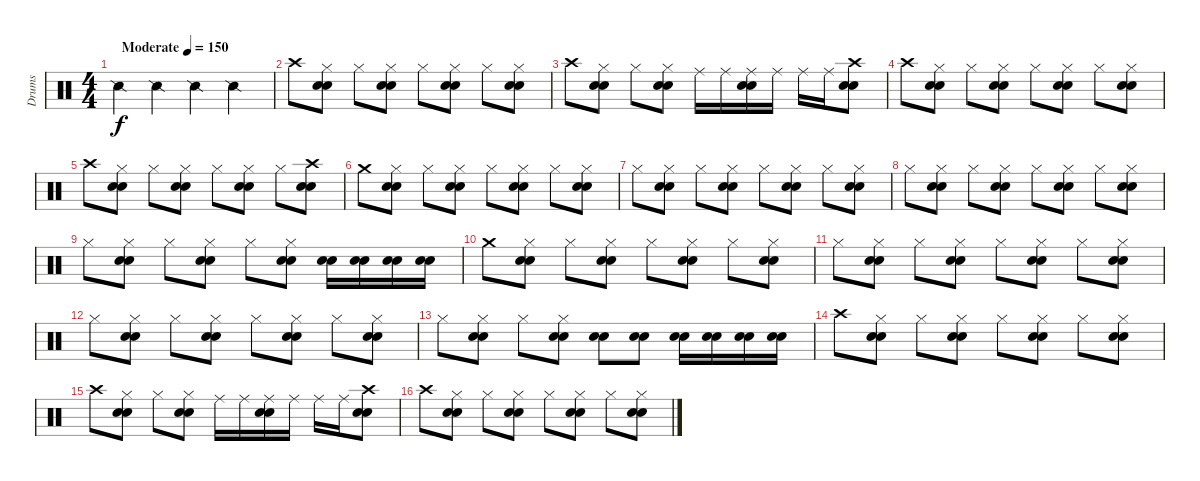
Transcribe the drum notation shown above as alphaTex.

\track ("Drums" "Drums") {instrument percussion}
\staff {score}
\articulation defaults
\ts (4 4)
\tempo (150 "Moderate")
\clef neutral
\ks c "Snare (side stick) 2".4{dy f} "Snare (side stick) 2".4 "Snare (side stick) 2".4 "Snare (side stick) 2".4
|
"Crash high (hit)".8 ("Hi-Hat (closed)" "Electric Snare (hit)" "Snare (hit) 2").8 "Hi-Hat (closed)".8 ("Hi-Hat (closed)" "Electric Snare (hit)" "Snare (hit) 2").8 "Hi-Hat (closed)".8 ("Hi-Hat (closed)" "Electric Snare (hit)" "Snare (hit) 2").8 "Hi-Hat (closed)".8 ("Hi-Hat (closed)" "Electric Snare (hit)" "Snare (hit) 2").8 |
"Crash high (hit)".8 ("Hi-Hat (closed)" "Electric Snare (hit)" "Snare (hit) 2").8 "Hi-Hat (closed)".8 ("Hi-Hat (closed)" "Electric Snare (hit)" "Snare (hit) 2").8 "Ride (middle)".16 "Ride (middle)".16 ("Ride (middle)" "Electric Snare (hit)" "Snare (hit) 2").16 "Ride (middle)".16 "Ride (middle)".16 "Ride (middle)".16 ("Crash high (hit)" "Electric Snare (hit)" "Snare (hit) 2").8 |
"Crash high (hit)".8 ("Hi-Hat (closed)" "Electric Snare (hit)" "Snare (hit) 2").8 "Hi-Hat (closed)".8 ("Hi-Hat (closed)" "Electric Snare (hit)" "Snare (hit) 2").8 "Hi-Hat (closed)".8 ("Hi-Hat (closed)" "Electric Snare (hit)" "Snare (hit) 2").8 "Hi-Hat (closed)".8 ("Hi-Hat (closed)" "Electric Snare (hit)" "Snare (hit) 2").8 |
"Crash high (hit)".8 ("Hi-Hat (closed)" "Electric Snare (hit)" "Snare (hit) 2").8 "Hi-Hat (closed)".8 ("Hi-Hat (closed)" "Electric Snare (hit)" "Snare (hit) 2").8 "Hi-Hat (closed)".8 ("Hi-Hat (closed)" "Electric Snare (hit)" "Snare (hit) 2").8 "Hi-Hat (closed)".8 ("Crash high (hit)" "Electric Snare (hit)" "Snare (hit) 2").8 |
"Crash medium (hit)".8 ("Hi-Hat (closed)" "Electric Snare (hit)" "Snare (hit) 2").8 "Hi-Hat (closed)".8 ("Hi-Hat (closed)" "Electric Snare (hit)" "Snare (hit) 2").8 "Hi-Hat (closed)".8 ("Hi-Hat (closed)" "Electric Snare (hit)" "Snare (hit) 2").8 "Hi-Hat (closed)".8 ("Hi-Hat (closed)" "Electric Snare (hit)" "Snare (hit) 2").8 |
"Hi-Hat (closed)".8 ("Hi-Hat (closed)" "Electric Snare (hit)" "Snare (hit) 2").8 "Hi-Hat (closed)".8 ("Hi-Hat (closed)" "Electric Snare (hit)" "Snare (hit) 2").8 "Hi-Hat (closed)".8 ("Hi-Hat (closed)" "Electric Snare (hit)" "Snare (hit) 2").8 "Hi-Hat (closed)".8 ("Hi-Hat (closed)" "Electric Snare (hit)" "Snare (hit) 2").8 |
"Hi-Hat (closed)".8 ("Hi-Hat (closed)" "Electric Snare (hit)" "Snare (hit) 2").8 "Hi-Hat (closed)".8 ("Hi-Hat (closed)" "Electric Snare (hit)" "Snare (hit) 2").8 "Hi-Hat (closed)".8 ("Hi-Hat (closed)" "Electric Snare (hit)" "Snare (hit) 2").8 "Hi-Hat (closed)".8 ("Hi-Hat (closed)" "Electric Snare (hit)" "Snare (hit) 2").8 |
"Hi-Hat (closed)".8 ("Hi-Hat (closed)" "Electric Snare (hit)" "Snare (hit) 2").8 "Hi-Hat (closed)".8 ("Hi-Hat (closed)" "Electric Snare (hit)" "Snare (hit) 2").8 "Hi-Hat (closed)".8 ("Hi-Hat (closed)" "Electric Snare (hit)" "Snare (hit) 2").8 ("Electric Snare (hit)" "Snare (hit) 2").16 ("Electric Snare (hit)" "Snare (hit) 2").16 ("Electric Snare (hit)" "Snare (hit) 2").16 ("Electric Snare (hit)" "Snare (hit) 2").16 |
"Crash medium (hit)".8 ("Hi-Hat (closed)" "Electric Snare (hit)" "Snare (hit) 2").8 "Hi-Hat (closed)".8 ("Hi-Hat (closed)" "Electric Snare (hit)" "Snare (hit) 2").8 "Hi-Hat (closed)".8 ("Hi-Hat (closed)" "Electric Snare (hit)" "Snare (hit) 2").8 "Hi-Hat (closed)".8 ("Hi-Hat (closed)" "Electric Snare (hit)" "Snare (hit) 2").8 |
"Hi-Hat (closed)".8 ("Hi-Hat (closed)" "Electric Snare (hit)" "Snare (hit) 2").8 "Hi-Hat (closed)".8 ("Hi-Hat (closed)" "Electric Snare (hit)" "Snare (hit) 2").8 "Hi-Hat (closed)".8 ("Hi-Hat (closed)" "Electric Snare (hit)" "Snare (hit) 2").8 "Hi-Hat (closed)".8 ("Hi-Hat (closed)" "Electric Snare (hit)" "Snare (hit) 2").8 |
"Hi-Hat (closed)".8 ("Hi-Hat (closed)" "Electric Snare (hit)" "Snare (hit) 2").8 "Hi-Hat (closed)".8 ("Hi-Hat (closed)" "Electric Snare (hit)" "Snare (hit) 2").8 "Hi-Hat (closed)".8 ("Hi-Hat (closed)" "Electric Snare (hit)" "Snare (hit) 2").8 "Hi-Hat (closed)".8 ("Hi-Hat (closed)" "Electric Snare (hit)" "Snare (hit) 2").8 |
"Hi-Hat (closed)".8 ("Hi-Hat (closed)" "Electric Snare (hit)" "Snare (hit) 2").8 "Hi-Hat (closed)".8 ("Hi-Hat (closed)" "Electric Snare (hit)" "Snare (hit) 2").8 ("Electric Snare (hit)" "Snare (hit) 2").8 ("Electric Snare (hit)" "Snare (hit) 2").8 ("Electric Snare (hit)" "Snare (hit) 2").16 ("Electric Snare (hit)" "Snare (hit) 2").16 ("Electric Snare (hit)" "Snare (hit) 2").16 ("Electric Snare (hit)" "Snare (hit) 2").16 |
"Crash high (hit)".8 ("Hi-Hat (closed)" "Electric Snare (hit)" "Snare (hit) 2").8 "Hi-Hat (closed)".8 ("Hi-Hat (closed)" "Electric Snare (hit)" "Snare (hit) 2").8 "Hi-Hat (closed)".8 ("Hi-Hat (closed)" "Electric Snare (hit)" "Snare (hit) 2").8 "Hi-Hat (closed)".8 ("Hi-Hat (closed)" "Electric Snare (hit)" "Snare (hit) 2").8 |
"Crash high (hit)".8 ("Hi-Hat (closed)" "Electric Snare (hit)" "Snare (hit) 2").8 "Hi-Hat (closed)".8 ("Hi-Hat (closed)" "Electric Snare (hit)" "Snare (hit) 2").8 "Ride (middle)".16 "Ride (middle)".16 ("Ride (middle)" "Electric Snare (hit)" "Snare (hit) 2").16 "Ride (middle)".16 "Ride (middle)".16 "Ride (middle)".16 ("Crash high (hit)" "Electric Snare (hit)" "Snare (hit) 2").8 |
"Crash high (hit)".8 ("Hi-Hat (closed)" "Electric Snare (hit)" "Snare (hit) 2").8 "Hi-Hat (closed)".8 ("Hi-Hat (closed)" "Electric Snare (hit)" "Snare (hit) 2").8 "Hi-Hat (closed)".8 ("Hi-Hat (closed)" "Electric Snare (hit)" "Snare (hit) 2").8 "Hi-Hat (closed)".8 ("Hi-Hat (closed)" "Electric Snare (hit)" "Snare (hit) 2").8
